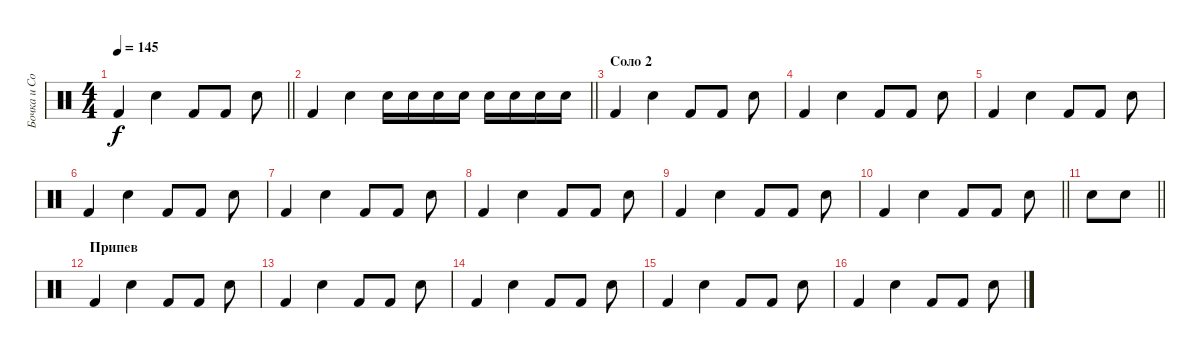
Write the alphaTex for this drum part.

\track ("Бочка и Сольник" "Бочка и Со") {instrument percussion}
\staff {score}
\articulation defaults
\ts (4 4)
\tempo 145
\clef neutral
\barLineRight lightlight
\ks c "Kick (hit) 2".4{dy f} "Snare (hit) 2".4 "Kick (hit) 2".8 "Kick (hit) 2".8 "Snare (hit) 2".8
|
\barLineRight lightlight "Kick (hit) 2".4 "Snare (hit) 2".4 "Snare (hit) 2".16 "Snare (hit) 2".16 "Snare (hit) 2".16 "Snare (hit) 2".16 "Snare (hit) 2".16 "Snare (hit) 2".16 "Snare (hit) 2".16 "Snare (hit) 2".16
|
\section ("" "Соло 2")
"Kick (hit) 2".4 "Snare (hit) 2".4 "Kick (hit) 2".8 "Kick (hit) 2".8 "Snare (hit) 2".8 |
"Kick (hit) 2".4 "Snare (hit) 2".4 "Kick (hit) 2".8 "Kick (hit) 2".8 "Snare (hit) 2".8 |
"Kick (hit) 2".4 "Snare (hit) 2".4 "Kick (hit) 2".8 "Kick (hit) 2".8 "Snare (hit) 2".8 |
"Kick (hit) 2".4 "Snare (hit) 2".4 "Kick (hit) 2".8 "Kick (hit) 2".8 "Snare (hit) 2".8 |
"Kick (hit) 2".4 "Snare (hit) 2".4 "Kick (hit) 2".8 "Kick (hit) 2".8 "Snare (hit) 2".8 |
"Kick (hit) 2".4 "Snare (hit) 2".4 "Kick (hit) 2".8 "Kick (hit) 2".8 "Snare (hit) 2".8 |
"Kick (hit) 2".4 "Snare (hit) 2".4 "Kick (hit) 2".8 "Kick (hit) 2".8 "Snare (hit) 2".8 |
\barLineRight lightlight "Kick (hit) 2".4 "Snare (hit) 2".4 "Kick (hit) 2".8 "Kick (hit) 2".8 "Snare (hit) 2".8
|
\barLineRight lightlight "Snare (hit) 2".8 "Snare (hit) 2".8
|
\section ("" "Припев")
"Kick (hit) 2".4 "Snare (hit) 2".4 "Kick (hit) 2".8 "Kick (hit) 2".8 "Snare (hit) 2".8 |
"Kick (hit) 2".4 "Snare (hit) 2".4 "Kick (hit) 2".8 "Kick (hit) 2".8 "Snare (hit) 2".8 |
"Kick (hit) 2".4 "Snare (hit) 2".4 "Kick (hit) 2".8 "Kick (hit) 2".8 "Snare (hit) 2".8 |
"Kick (hit) 2".4 "Snare (hit) 2".4 "Kick (hit) 2".8 "Kick (hit) 2".8 "Snare (hit) 2".8 |
"Kick (hit) 2".4 "Snare (hit) 2".4 "Kick (hit) 2".8 "Kick (hit) 2".8 "Snare (hit) 2".8
